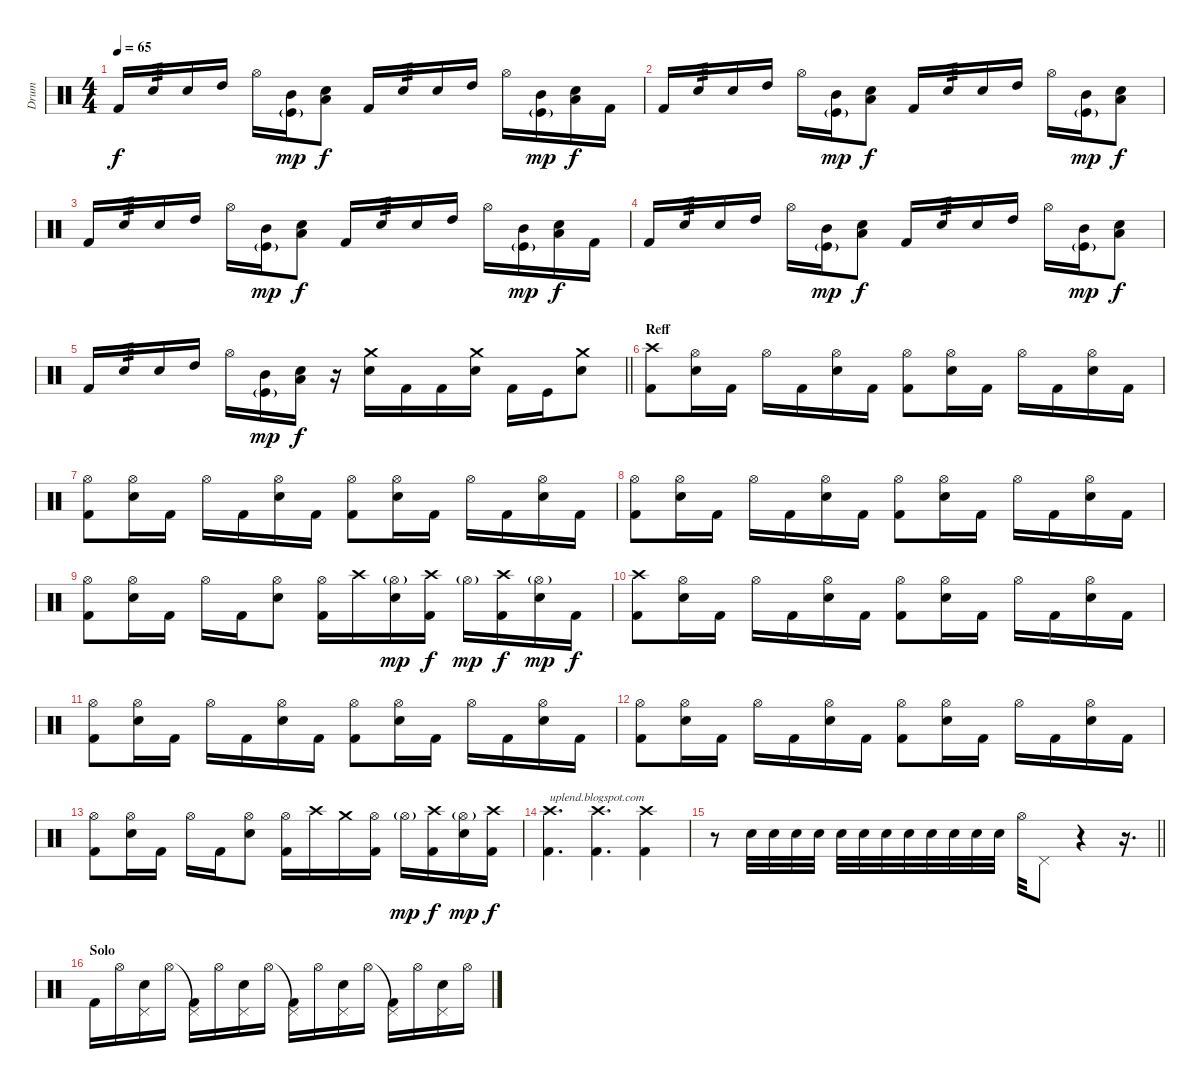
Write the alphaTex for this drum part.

\track ("Drum" "Drum") {instrument percussion}
\staff {score}
\articulation defaults
\ts (4 4)
\tempo 65
\clef neutral
\ks c "Kick (hit) 2".16{dy f} "Electric Snare (hit)".16{tp 3} "Electric Snare (hit)".16 "High Tom (hit)".16 "Hi-Hat (open)".16
("Mid Tom (hit)" "Kick (hit)"{g}).16{dy mp} ("Low Floor Tom (hit)" "Electric Snare (hit)").8{dy f} "Kick (hit) 2".16 "Electric Snare (hit)".16{tp 3} "Electric Snare (hit)".16 "High Tom (hit)".16 "Hi-Hat (open)".16 ("Mid Tom (hit)" "Kick (hit)"{g}).16{dy mp} ("Low Floor Tom (hit)" "Electric Snare (hit)").16{dy f} "Kick (hit) 2".16 |
"Kick (hit) 2".16 "Electric Snare (hit)".16{tp 3} "Electric Snare (hit)".16 "High Tom (hit)".16 "Hi-Hat (open)".16 ("Mid Tom (hit)" "Kick (hit)"{g}).16{dy mp} ("Low Floor Tom (hit)" "Electric Snare (hit)").8{dy f} "Kick (hit) 2".16 "Electric Snare (hit)".16{tp 3} "Electric Snare (hit)".16 "High Tom (hit)".16 "Hi-Hat (open)".16 ("Mid Tom (hit)" "Kick (hit)"{g}).16{dy mp} ("Low Floor Tom (hit)" "Electric Snare (hit)").8{dy f} |
"Kick (hit) 2".16 "Electric Snare (hit)".16{tp 3} "Electric Snare (hit)".16 "High Tom (hit)".16 "Hi-Hat (open)".16 ("Mid Tom (hit)" "Kick (hit)"{g}).16{dy mp} ("Low Floor Tom (hit)" "Electric Snare (hit)").8{dy f} "Kick (hit) 2".16 "Electric Snare (hit)".16{tp 3} "Electric Snare (hit)".16 "High Tom (hit)".16 "Hi-Hat (open)".16 ("Mid Tom (hit)" "Kick (hit)"{g}).16{dy mp} ("Low Floor Tom (hit)" "Electric Snare (hit)").16{dy f} "Kick (hit) 2".16 |
"Kick (hit) 2".16 "Electric Snare (hit)".16{tp 3} "Electric Snare (hit)".16 "High Tom (hit)".16 "Hi-Hat (open)".16 ("Mid Tom (hit)" "Kick (hit)"{g}).16{dy mp} ("Low Floor Tom (hit)" "Electric Snare (hit)").8{dy f} "Kick (hit) 2".16 "Electric Snare (hit)".16{tp 3} "Electric Snare (hit)".16 "High Tom (hit)".16 "Hi-Hat (open)".16 ("Mid Tom (hit)" "Kick (hit)"{g}).16{dy mp} ("Low Floor Tom (hit)" "Electric Snare (hit)").8{dy f} |
\barLineRight lightlight "Kick (hit) 2".16 "Electric Snare (hit)".16{tp 3} "Electric Snare (hit)".16 "High Tom (hit)".16 "Hi-Hat (open)".16
("Mid Tom (hit)" "Kick (hit)"{g}).16{dy mp} ("Low Floor Tom (hit)" "Electric Snare (hit)").16{dy f} r.16 ("Crash medium (hit)" "Electric Snare (hit)").16 "Kick (hit) 2".16 "Kick (hit) 2".16 ("Crash medium (hit)" "Electric Snare (hit)").16 "Kick (hit) 2".16 "Kick (hit)".16 ("Crash medium (hit)" "Electric Snare (hit)").8 |
\section ("" "Reff")
("Crash high (hit)" "Kick (hit) 2").8 ("Hi-Hat (open)" "Electric Snare (hit)").16 "Kick (hit) 2".16 "Hi-Hat (open)".16 "Kick (hit) 2".16 ("Hi-Hat (open)" "Electric Snare (hit)").16 "Kick (hit) 2".16 ("Hi-Hat (open)" "Kick (hit) 2").8 ("Hi-Hat (open)" "Electric Snare (hit)").16 "Kick (hit) 2".16 "Hi-Hat (open)".16 "Kick (hit) 2".16 ("Hi-Hat (open)" "Electric Snare (hit)").16 "Kick (hit) 2".16 |
("Hi-Hat (open)" "Kick (hit) 2").8 ("Hi-Hat (open)" "Electric Snare (hit)").16 "Kick (hit) 2".16 "Hi-Hat (open)".16 "Kick (hit) 2".16 ("Hi-Hat (open)" "Electric Snare (hit)").16 "Kick (hit) 2".16 ("Hi-Hat (open)" "Kick (hit) 2").8 ("Hi-Hat (open)" "Electric Snare (hit)").16 "Kick (hit) 2".16 "Hi-Hat (open)".16 "Kick (hit) 2".16 ("Hi-Hat (open)" "Electric Snare (hit)").16 "Kick (hit) 2".16 |
("Hi-Hat (open)" "Kick (hit) 2").8 ("Hi-Hat (open)" "Electric Snare (hit)").16 "Kick (hit) 2".16 "Hi-Hat (open)".16 "Kick (hit) 2".16 ("Hi-Hat (open)" "Electric Snare (hit)").16 "Kick (hit) 2".16 ("Hi-Hat (open)" "Kick (hit) 2").8 ("Hi-Hat (open)" "Electric Snare (hit)").16 "Kick (hit) 2".16 "Hi-Hat (open)".16 "Kick (hit) 2".16 ("Hi-Hat (open)" "Electric Snare (hit)").16 "Kick (hit) 2".16 |
("Hi-Hat (open)" "Kick (hit) 2").8 ("Hi-Hat (open)" "Electric Snare (hit)").16 "Kick (hit) 2".16 "Hi-Hat (open)".16 "Kick (hit) 2".16 ("Hi-Hat (open)" "Electric Snare (hit)").8 ("Hi-Hat (open)" "Kick (hit) 2").16 "Crash high (hit)".16 ("Hi-Hat (open)"{g} "Electric Snare (hit)").16{dy mp} ("Crash high (hit)" "Kick (hit) 2").16{dy f} "Hi-Hat (open)"{g}.16{dy mp} ("Crash high (hit)" "Kick (hit) 2").16{dy f} ("Hi-Hat (open)"{g} "Electric Snare (hit)").16{dy mp} "Kick (hit) 2".16{dy f} |
("Crash high (hit)" "Kick (hit) 2").8 ("Hi-Hat (open)" "Electric Snare (hit)").16 "Kick (hit) 2".16 "Hi-Hat (open)".16 "Kick (hit) 2".16 ("Hi-Hat (open)" "Electric Snare (hit)").16 "Kick (hit) 2".16 ("Hi-Hat (open)" "Kick (hit) 2").8 ("Hi-Hat (open)" "Electric Snare (hit)").16 "Kick (hit) 2".16 "Hi-Hat (open)".16 "Kick (hit) 2".16 ("Hi-Hat (open)" "Electric Snare (hit)").16 "Kick (hit) 2".16 |
("Hi-Hat (open)" "Kick (hit) 2").8 ("Hi-Hat (open)" "Electric Snare (hit)").16 "Kick (hit) 2".16 "Hi-Hat (open)".16 "Kick (hit) 2".16 ("Hi-Hat (open)" "Electric Snare (hit)").16 "Kick (hit) 2".16 ("Hi-Hat (open)" "Kick (hit) 2").8 ("Hi-Hat (open)" "Electric Snare (hit)").16 "Kick (hit) 2".16 "Hi-Hat (open)".16 "Kick (hit) 2".16 ("Hi-Hat (open)" "Electric Snare (hit)").16 "Kick (hit) 2".16 |
("Hi-Hat (open)" "Kick (hit) 2").8 ("Hi-Hat (open)" "Electric Snare (hit)").16 "Kick (hit) 2".16 "Hi-Hat (open)".16 "Kick (hit) 2".16 ("Hi-Hat (open)" "Electric Snare (hit)").16 "Kick (hit) 2".16 ("Hi-Hat (open)" "Kick (hit) 2").8 ("Hi-Hat (open)" "Electric Snare (hit)").16 "Kick (hit) 2".16 "Hi-Hat (open)".16 "Kick (hit) 2".16 ("Hi-Hat (open)" "Electric Snare (hit)").16 "Kick (hit) 2".16 |
("Hi-Hat (open)" "Kick (hit) 2").8 ("Hi-Hat (open)" "Electric Snare (hit)").16 "Kick (hit) 2".16 "Hi-Hat (open)".16 "Kick (hit) 2".16 ("Hi-Hat (open)" "Electric Snare (hit)").8 ("Hi-Hat (open)" "Kick (hit) 2").16 "Crash high (hit)".16 "Crash medium (hit)".16 ("Hi-Hat (open)" "Kick (hit) 2").16 "Hi-Hat (open)"{g}.16{dy mp} ("Crash high (hit)" "Kick (hit) 2").16{dy f} ("Hi-Hat (open)"{g} "Electric Snare (hit)").16{dy mp} ("Crash high (hit)" "Kick (hit) 2").16{dy f} |
("Crash high (hit)" "Kick (hit) 2").4{d txt "uplend.blogspot.com"} ("Crash high (hit)" "Kick (hit) 2").4{d} ("Crash high (hit)" "Kick (hit) 2").4 |
\barLineRight lightlight
r.8 "Electric Snare (hit)".32 "Electric Snare (hit)".32 "Electric Snare (hit)".32 "Electric Snare (hit)".32 "Electric Snare (hit)".32 "Electric Snare (hit)".32 "Electric Snare (hit)".32 "Electric Snare (hit)".32 "Electric Snare (hit)".32 "Electric Snare (hit)".32 "Electric Snare (hit)".32 "Electric Snare (hit)".32 "Hi-Hat (open)".32 "Pedal Hi-Hat (hit)".8 r.4 r.16{d} |
\section ("" "Solo")
"Kick (hit) 2".16 "Hi-Hat (open)".16 ("Pedal Hi-Hat (hit)" "Electric Snare (hit)").16 "Hi-Hat (open)".16 ("Pedal Hi-Hat (hit)"{t} "Kick (hit) 2").16 "Hi-Hat (open)".16 ("Pedal Hi-Hat (hit)" "Electric Snare (hit)").16 "Hi-Hat (open)".16 ("Pedal Hi-Hat (hit)"{t} "Kick (hit) 2").16 "Hi-Hat (open)".16 ("Pedal Hi-Hat (hit)" "Electric Snare (hit)").16 "Hi-Hat (open)".16 ("Pedal Hi-Hat (hit)"{t} "Kick (hit) 2").16 "Hi-Hat (open)".16 ("Pedal Hi-Hat (hit)" "Electric Snare (hit)").16 "Hi-Hat (open)".16
